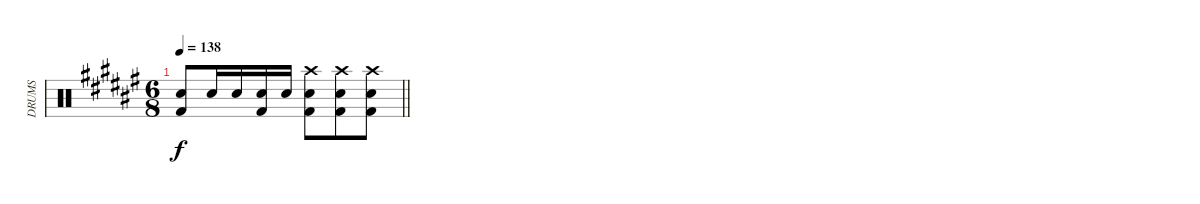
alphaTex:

\track ("DRUMS" "DRUMS") {instrument percussion}
\staff {score}
\articulation defaults
\ts (6 8)
\tempo 138
\clef neutral
\barLineRight lightlight
\ks f#
("Kick (hit) 2" "Snare (hit) 2").8{dy f} "Snare (hit) 2".16 "Snare (hit) 2".16 ("Kick (hit) 2" "Snare (hit) 2").16 "Snare (hit) 2".16 ("Kick (hit) 2" "Snare (hit) 2" "Crash high (hit)").8 ("Kick (hit) 2" "Snare (hit) 2" "Crash high (hit)").8 ("Kick (hit) 2" "Snare (hit) 2" "Crash high (hit)").8
